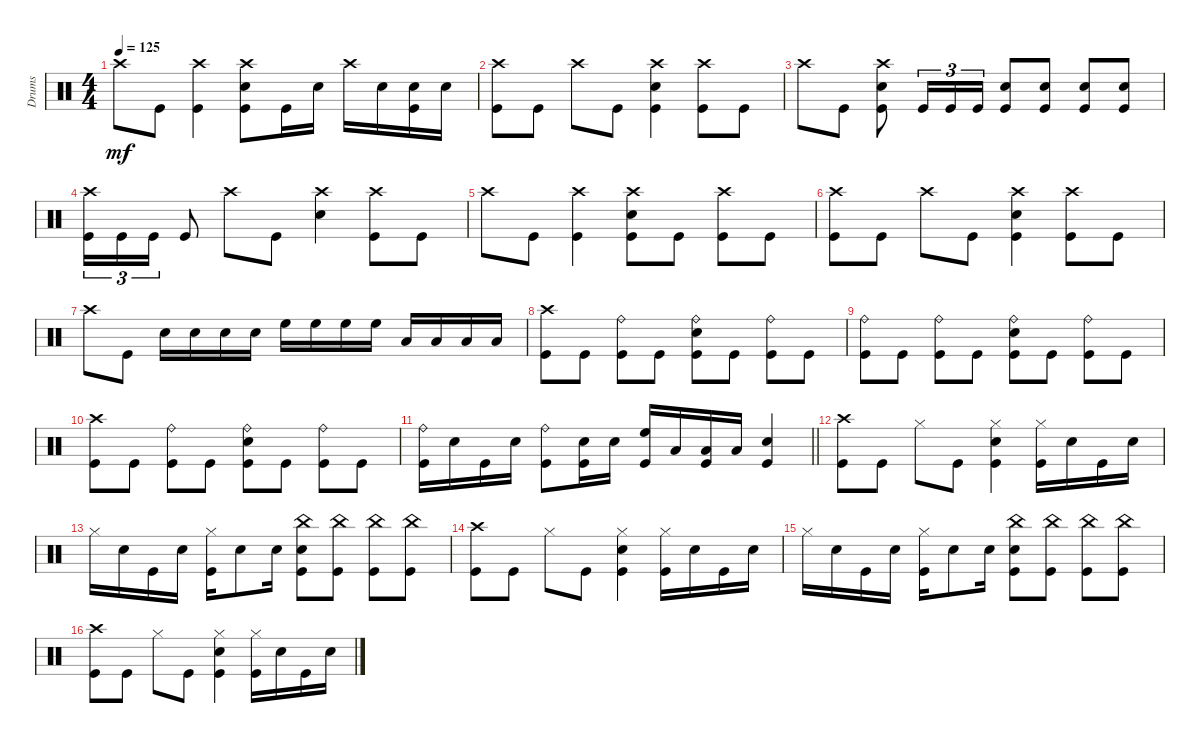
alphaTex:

\track ("Drums" "Drums") {instrument percussion}
\staff {score}
\articulation defaults
\ts (4 4)
\tempo 125
\clef neutral
\ks c "Crash high (hit)".8{dy mf} "Kick (hit)".8
("Crash high (hit)" "Kick (hit)").4 ("Snare (hit) 2" "Crash high (hit)" "Kick (hit)").8 "Kick (hit)".16 "Snare (hit) 2".16 "Crash high (hit)".16 "Snare (hit) 2".16 ("Kick (hit)" "Snare (hit) 2").16 "Snare (hit) 2".16 |
("Crash high (hit)" "Kick (hit)").8 "Kick (hit)".8 "Crash high (hit)".8 "Kick (hit)".8 ("Snare (hit) 2" "Crash high (hit)" "Kick (hit)").4 ("Crash high (hit)" "Kick (hit)").8 "Kick (hit)".8 |
"Crash high (hit)".8 "Kick (hit)".8 ("Snare (hit) 2" "Crash high (hit)" "Kick (hit)").8 "Kick (hit)".16{tu (3 2)} "Kick (hit)".16{tu (3 2)} "Kick (hit)".16{tu (3 2)} ("Kick (hit)" "Snare (hit) 2").8 ("Kick (hit)" "Snare (hit) 2").8 ("Kick (hit)" "Snare (hit) 2").8 ("Kick (hit)" "Snare (hit) 2").8 |
("Kick (hit)" "Crash high (hit)").16{tu (3 2)} "Kick (hit)".16{tu (3 2)} "Kick (hit)".16{tu (3 2)} "Kick (hit)".8 "Crash high (hit)".8 "Kick (hit)".8 ("Snare (hit) 2" "Crash high (hit)").4 ("Kick (hit)" "Crash high (hit)").8 "Kick (hit)".8 |
"Crash high (hit)".8 "Kick (hit)".8 ("Kick (hit)" "Crash high (hit)").4 ("Kick (hit)" "Snare (hit) 2" "Crash high (hit)").8 "Kick (hit)".8 ("Crash high (hit)" "Kick (hit)").8 "Kick (hit)".8 |
("Crash high (hit)" "Kick (hit)").8 "Kick (hit)".8 "Crash high (hit)".8 "Kick (hit)".8 ("Snare (hit) 2" "Crash high (hit)" "Kick (hit)").4 ("Crash high (hit)" "Kick (hit)").8 "Kick (hit)".8 |
"Crash high (hit)".8 "Kick (hit)".8 "Snare (hit) 2".16 "Snare (hit) 2".16 "Snare (hit) 2".16 "Snare (hit) 2".16 "High Floor Tom (hit)".16 "High Floor Tom (hit)".16 "High Floor Tom (hit)".16 "High Floor Tom (hit)".16 "Low Tom (hit)".16 "Low Tom (hit)".16 "Low Tom (hit)".16 "Low Tom (hit)".16 |
("Kick (hit)" "Crash high (hit)").8 "Kick (hit)".8 ("Kick (hit)" "Ride (bell)").8 "Kick (hit)".8 ("Kick (hit)" "Snare (hit) 2" "Ride (bell)").8 "Kick (hit)".8 ("Kick (hit)" "Ride (bell)").8 "Kick (hit)".8 |
("Ride (bell)" "Kick (hit)").8 "Kick (hit)".8 ("Ride (bell)" "Kick (hit)").8 "Kick (hit)".8 ("Snare (hit) 2" "Ride (bell)" "Kick (hit)").8 "Kick (hit)".8 ("Ride (bell)" "Kick (hit)").8 "Kick (hit)".8 |
("Crash high (hit)" "Kick (hit)").8 "Kick (hit)".8 ("Ride (bell)" "Kick (hit)").8 "Kick (hit)".8 ("Snare (hit) 2" "Ride (bell)" "Kick (hit)").8 "Kick (hit)".8 ("Ride (bell)" "Kick (hit)").8 "Kick (hit)".8 |
\barLineRight lightlight
("Kick (hit)" "Ride (bell)").16 "Snare (hit) 2".16 "Kick (hit)".16 "Snare (hit) 2".16 ("Ride (bell)" "Kick (hit)").8 ("Snare (hit) 2" "Kick (hit)").16 "Snare (hit) 2".16 ("High Floor Tom (hit)" "Kick (hit)").16 "Low Tom (hit)".16 ("Low Floor Tom (hit)" "Kick (hit)").16 "Low Floor Tom (hit)".16 ("Snare (hit) 2" "Kick (hit)").4 |
("Kick (hit)" "Crash high (hit)").8{volume 6} "Kick (hit)".8 "Hi-Hat (closed)".8 "Kick (hit)".8 ("Kick (hit)" "Snare (hit) 2" "Hi-Hat (closed)").4 ("Kick (hit)" "Hi-Hat (closed)").16 "Snare (hit) 2".16 "Kick (hit)".16 "Snare (hit) 2".16 |
"Hi-Hat (closed)".16 "Snare (hit) 2".16 "Kick (hit)".16 "Snare (hit) 2".16 ("Kick (hit)" "Hi-Hat (closed)").16 "Snare (hit) 2".8 "Snare (hit) 2".16 ("Snare (hit) 2" "China (hit)" "Kick (hit)").8 ("China (hit)" "Kick (hit)").8 ("China (hit)" "Kick (hit)").8 ("China (hit)" "Kick (hit)").8 |
("Crash high (hit)" "Kick (hit)").8 "Kick (hit)".8 "Hi-Hat (closed)".8 "Kick (hit)".8 ("Snare (hit) 2" "Hi-Hat (closed)" "Kick (hit)").4 ("Hi-Hat (closed)" "Kick (hit)").16 "Snare (hit) 2".16 "Kick (hit)".16 "Snare (hit) 2".16 |
"Hi-Hat (closed)".16 "Snare (hit) 2".16 "Kick (hit)".16 "Snare (hit) 2".16 ("Hi-Hat (closed)" "Kick (hit)").16 "Snare (hit) 2".8 "Snare (hit) 2".16 ("Kick (hit)" "Snare (hit) 2" "China (hit)").8 ("Kick (hit)" "China (hit)").8 ("Kick (hit)" "China (hit)").8 ("Kick (hit)" "China (hit)").8 |
("Crash high (hit)" "Kick (hit)").8 "Kick (hit)".8 "Hi-Hat (closed)".8 "Kick (hit)".8 ("Snare (hit) 2" "Hi-Hat (closed)" "Kick (hit)").4 ("Hi-Hat (closed)" "Kick (hit)").16 "Snare (hit) 2".16 "Kick (hit)".16 "Snare (hit) 2".16
